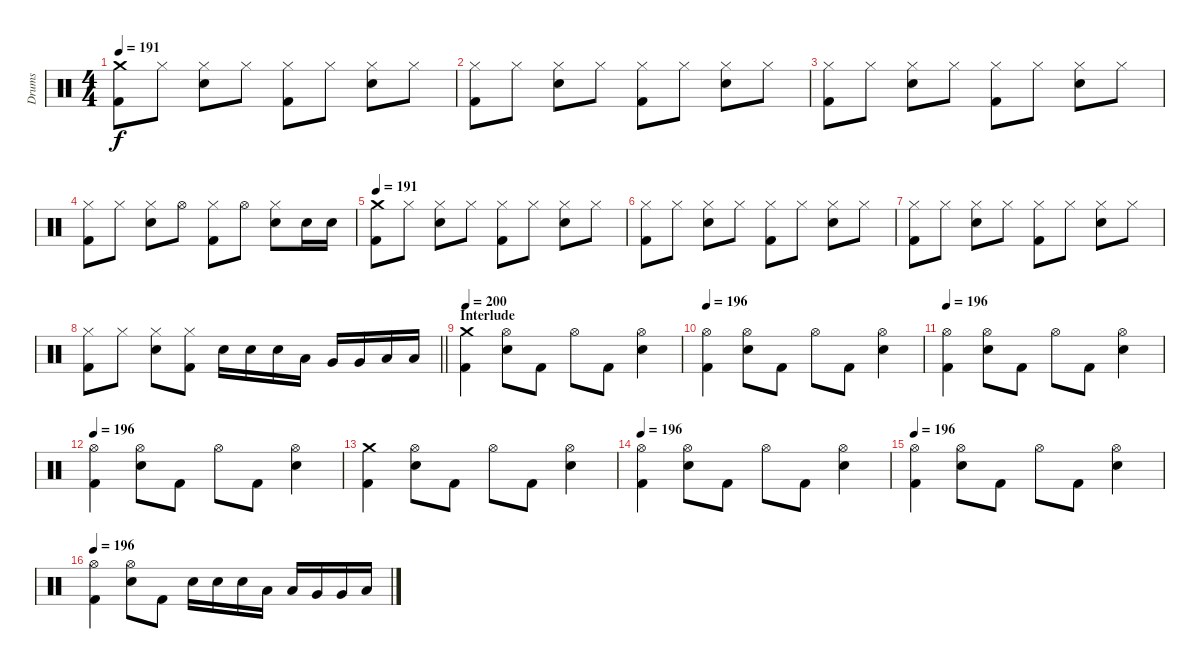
\track ("Drums" "Drums") {instrument percussion}
\staff {score}
\articulation defaults
\ts (4 4)
\tempo 191
\clef neutral
\ks c
("Crash medium (hit)" "Kick (hit) 2").8{dy f} "Hi-Hat (closed)".8 ("Hi-Hat (closed)" "Electric Snare (hit)").8 "Hi-Hat (closed)".8 ("Hi-Hat (closed)" "Kick (hit) 2").8 "Hi-Hat (closed)".8 ("Hi-Hat (closed)" "Electric Snare (hit)").8 "Hi-Hat (closed)".8 |
("Hi-Hat (closed)" "Kick (hit) 2").8 "Hi-Hat (closed)".8 ("Hi-Hat (closed)" "Electric Snare (hit)").8 "Hi-Hat (closed)".8 ("Hi-Hat (closed)" "Kick (hit) 2").8 "Hi-Hat (closed)".8 ("Hi-Hat (closed)" "Electric Snare (hit)").8 "Hi-Hat (closed)".8 |
("Hi-Hat (closed)" "Kick (hit) 2").8 "Hi-Hat (closed)".8 ("Hi-Hat (closed)" "Electric Snare (hit)").8 "Hi-Hat (closed)".8 ("Hi-Hat (closed)" "Kick (hit) 2").8 "Hi-Hat (closed)".8 ("Hi-Hat (closed)" "Electric Snare (hit)").8 "Hi-Hat (closed)".8 |
("Hi-Hat (closed)" "Kick (hit) 2").8 "Hi-Hat (closed)".8 ("Hi-Hat (closed)" "Electric Snare (hit)").8 "Hi-Hat (open)".8 ("Hi-Hat (closed)" "Kick (hit) 2").8 "Hi-Hat (open)".8 ("Hi-Hat (closed)" "Electric Snare (hit)").8 "Electric Snare (hit)".16 "Electric Snare (hit)".16 |
\tempo 191
("Crash medium (hit)" "Kick (hit) 2").8 "Hi-Hat (closed)".8 ("Hi-Hat (closed)" "Electric Snare (hit)").8 "Hi-Hat (closed)".8 ("Hi-Hat (closed)" "Kick (hit) 2").8 "Hi-Hat (closed)".8 ("Hi-Hat (closed)" "Electric Snare (hit)").8 "Hi-Hat (closed)".8 |
("Hi-Hat (closed)" "Kick (hit) 2").8 "Hi-Hat (closed)".8 ("Hi-Hat (closed)" "Electric Snare (hit)").8 "Hi-Hat (closed)".8 ("Hi-Hat (closed)" "Kick (hit) 2").8 "Hi-Hat (closed)".8 ("Hi-Hat (closed)" "Electric Snare (hit)").8 "Hi-Hat (closed)".8 |
("Hi-Hat (closed)" "Kick (hit) 2").8 "Hi-Hat (closed)".8 ("Hi-Hat (closed)" "Electric Snare (hit)").8 "Hi-Hat (closed)".8 ("Hi-Hat (closed)" "Kick (hit) 2").8 "Hi-Hat (closed)".8 ("Hi-Hat (closed)" "Electric Snare (hit)").8 "Hi-Hat (closed)".8 |
\barLineRight lightlight
("Hi-Hat (closed)" "Kick (hit) 2").8 "Hi-Hat (closed)".8 ("Hi-Hat (closed)" "Electric Snare (hit)").8 ("Hi-Hat (closed)" "Kick (hit) 2").8 "Electric Snare (hit)".16 "Electric Snare (hit)".16 "Electric Snare (hit)".16 "Low Tom (hit)".16 "Very Low Tom (hit)".16 "Very Low Tom (hit)".16 "Low Floor Tom (hit)".16 "Low Floor Tom (hit)".16 |
\section ("" "Interlude")
\tempo 200
("Crash medium (hit)" "Kick (hit) 2").4 ("Hi-Hat (open)" "Electric Snare (hit)").8 "Kick (hit) 2".8 "Hi-Hat (open)".8 "Kick (hit) 2".8 ("Hi-Hat (open)" "Electric Snare (hit)").4 |
\tempo 196
("Hi-Hat (open)" "Kick (hit) 2").4 ("Hi-Hat (open)" "Electric Snare (hit)").8 "Kick (hit) 2".8 "Hi-Hat (open)".8 "Kick (hit) 2".8 ("Hi-Hat (open)" "Electric Snare (hit)").4 |
\tempo 196
("Hi-Hat (open)" "Kick (hit) 2").4 ("Hi-Hat (open)" "Electric Snare (hit)").8 "Kick (hit) 2".8 "Hi-Hat (open)".8 "Kick (hit) 2".8 ("Hi-Hat (open)" "Electric Snare (hit)").4 |
\tempo 196
("Hi-Hat (open)" "Kick (hit) 2").4 ("Hi-Hat (open)" "Electric Snare (hit)").8 "Kick (hit) 2".8 "Hi-Hat (open)".8 "Kick (hit) 2".8 ("Hi-Hat (open)" "Electric Snare (hit)").4 |
("Crash medium (hit)" "Kick (hit) 2").4 ("Hi-Hat (open)" "Electric Snare (hit)").8 "Kick (hit) 2".8 "Hi-Hat (open)".8 "Kick (hit) 2".8 ("Hi-Hat (open)" "Electric Snare (hit)").4 |
\tempo 196
("Hi-Hat (open)" "Kick (hit) 2").4 ("Hi-Hat (open)" "Electric Snare (hit)").8 "Kick (hit) 2".8 "Hi-Hat (open)".8 "Kick (hit) 2".8 ("Hi-Hat (open)" "Electric Snare (hit)").4 |
\tempo 196
("Hi-Hat (open)" "Kick (hit) 2").4 ("Hi-Hat (open)" "Electric Snare (hit)").8 "Kick (hit) 2".8 "Hi-Hat (open)".8 "Kick (hit) 2".8 ("Hi-Hat (open)" "Electric Snare (hit)").4 |
\tempo 196
("Hi-Hat (open)" "Kick (hit) 2").4 ("Hi-Hat (open)" "Electric Snare (hit)").8 "Kick (hit) 2".8 "Electric Snare (hit)".16 "Electric Snare (hit)".16 "Electric Snare (hit)".16 "Low Tom (hit)".16 "Low Tom (hit)".16 "Very Low Tom (hit)".16 "Very Low Tom (hit)".16 "Low Floor Tom (hit)".16
